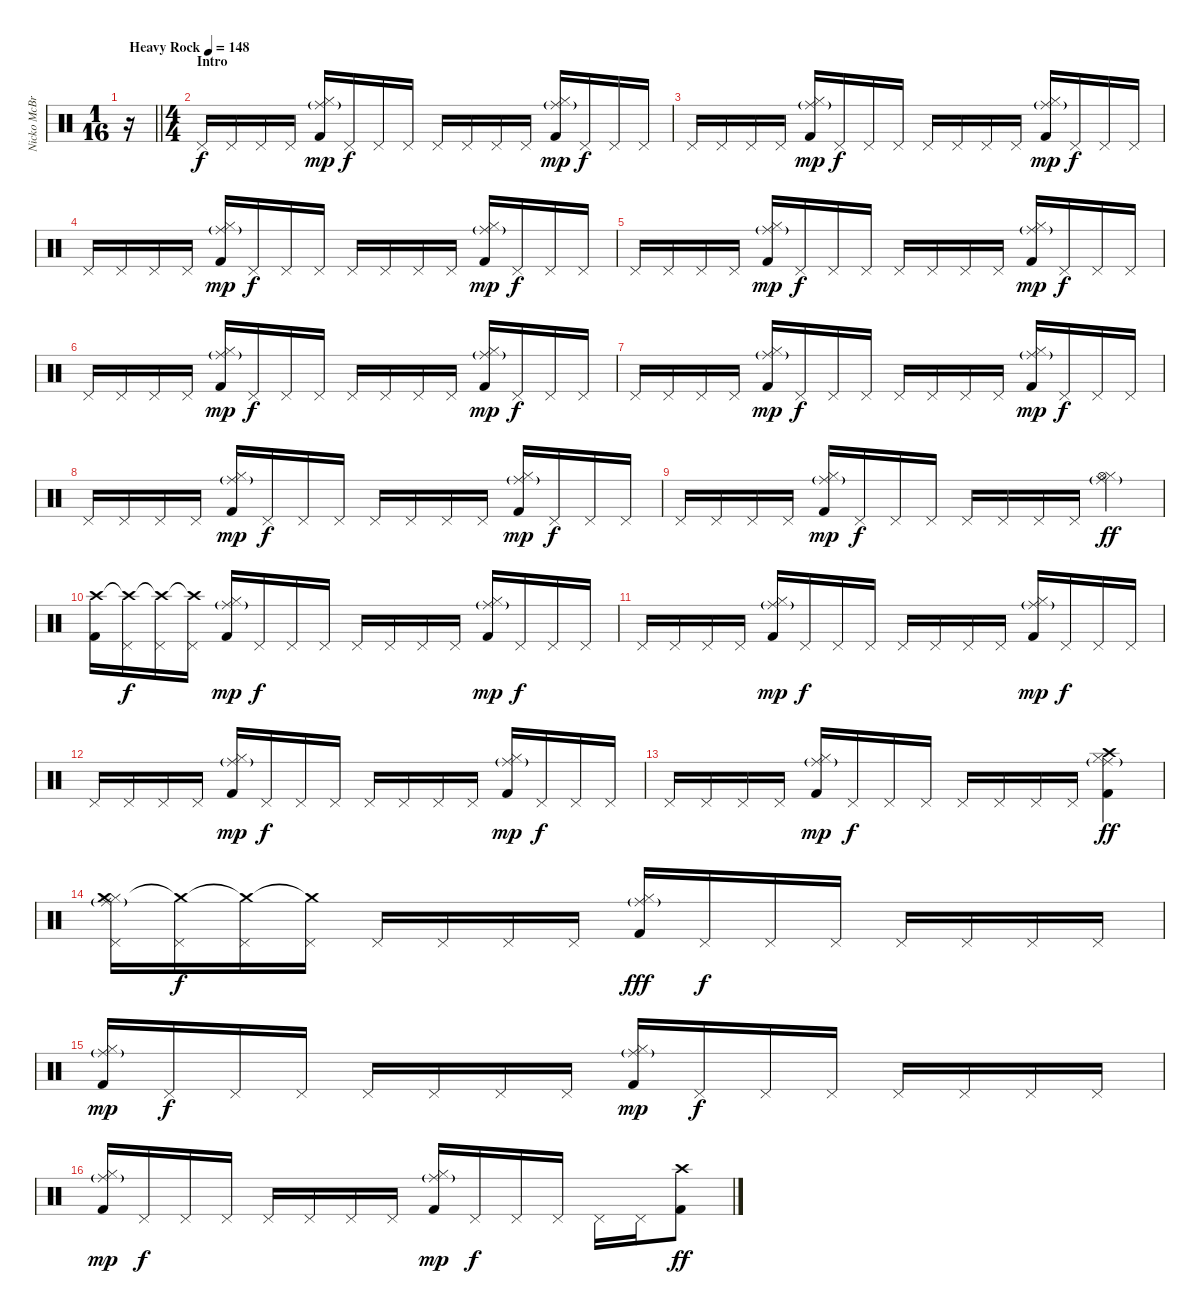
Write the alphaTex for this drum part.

\track ("Nicko McBrain" "Nicko McBr") {instrument percussion}
\staff {score}
\articulation defaults
\ts (1 16)
\tempo (148 "Heavy Rock")
\clef neutral
\barLineRight lightlight
\ks c
r.16{dy f} |
\ts (4 4)
\section ("" "Intro")
"Pedal Hi-Hat (hit)".16 "Pedal Hi-Hat (hit)".16 "Pedal Hi-Hat (hit)".16 "Pedal Hi-Hat (hit)".16 ("Kick (hit) 2" "Hi-Hat (closed)" "Ride (middle)"{g}).16{dy mp} "Pedal Hi-Hat (hit)".16{dy f} "Pedal Hi-Hat (hit)".16 "Pedal Hi-Hat (hit)".16 "Pedal Hi-Hat (hit)".16 "Pedal Hi-Hat (hit)".16 "Pedal Hi-Hat (hit)".16 "Pedal Hi-Hat (hit)".16 ("Kick (hit) 2" "Hi-Hat (closed)" "Ride (middle)"{g}).16{dy mp} "Pedal Hi-Hat (hit)".16{dy f} "Pedal Hi-Hat (hit)".16 "Pedal Hi-Hat (hit)".16 |
"Pedal Hi-Hat (hit)".16 "Pedal Hi-Hat (hit)".16 "Pedal Hi-Hat (hit)".16 "Pedal Hi-Hat (hit)".16 ("Kick (hit) 2" "Hi-Hat (closed)" "Ride (middle)"{g}).16{dy mp} "Pedal Hi-Hat (hit)".16{dy f} "Pedal Hi-Hat (hit)".16 "Pedal Hi-Hat (hit)".16 "Pedal Hi-Hat (hit)".16 "Pedal Hi-Hat (hit)".16 "Pedal Hi-Hat (hit)".16 "Pedal Hi-Hat (hit)".16 ("Kick (hit) 2" "Hi-Hat (closed)" "Ride (middle)"{g}).16{dy mp} "Pedal Hi-Hat (hit)".16{dy f} "Pedal Hi-Hat (hit)".16 "Pedal Hi-Hat (hit)".16 |
"Pedal Hi-Hat (hit)".16 "Pedal Hi-Hat (hit)".16 "Pedal Hi-Hat (hit)".16 "Pedal Hi-Hat (hit)".16 ("Kick (hit) 2" "Hi-Hat (closed)" "Ride (middle)"{g}).16{dy mp} "Pedal Hi-Hat (hit)".16{dy f} "Pedal Hi-Hat (hit)".16 "Pedal Hi-Hat (hit)".16 "Pedal Hi-Hat (hit)".16 "Pedal Hi-Hat (hit)".16 "Pedal Hi-Hat (hit)".16 "Pedal Hi-Hat (hit)".16 ("Kick (hit) 2" "Hi-Hat (closed)" "Ride (middle)"{g}).16{dy mp} "Pedal Hi-Hat (hit)".16{dy f} "Pedal Hi-Hat (hit)".16 "Pedal Hi-Hat (hit)".16 |
"Pedal Hi-Hat (hit)".16 "Pedal Hi-Hat (hit)".16 "Pedal Hi-Hat (hit)".16 "Pedal Hi-Hat (hit)".16 ("Kick (hit) 2" "Hi-Hat (closed)" "Ride (middle)"{g}).16{dy mp} "Pedal Hi-Hat (hit)".16{dy f} "Pedal Hi-Hat (hit)".16 "Pedal Hi-Hat (hit)".16 "Pedal Hi-Hat (hit)".16 "Pedal Hi-Hat (hit)".16 "Pedal Hi-Hat (hit)".16 "Pedal Hi-Hat (hit)".16 ("Kick (hit) 2" "Hi-Hat (closed)" "Ride (middle)"{g}).16{dy mp} "Pedal Hi-Hat (hit)".16{dy f} "Pedal Hi-Hat (hit)".16 "Pedal Hi-Hat (hit)".16 |
"Pedal Hi-Hat (hit)".16 "Pedal Hi-Hat (hit)".16 "Pedal Hi-Hat (hit)".16 "Pedal Hi-Hat (hit)".16 ("Kick (hit) 2" "Hi-Hat (closed)" "Ride (middle)"{g}).16{dy mp} "Pedal Hi-Hat (hit)".16{dy f} "Pedal Hi-Hat (hit)".16 "Pedal Hi-Hat (hit)".16 "Pedal Hi-Hat (hit)".16 "Pedal Hi-Hat (hit)".16 "Pedal Hi-Hat (hit)".16 "Pedal Hi-Hat (hit)".16 ("Kick (hit) 2" "Hi-Hat (closed)" "Ride (middle)"{g}).16{dy mp} "Pedal Hi-Hat (hit)".16{dy f} "Pedal Hi-Hat (hit)".16 "Pedal Hi-Hat (hit)".16 |
"Pedal Hi-Hat (hit)".16 "Pedal Hi-Hat (hit)".16 "Pedal Hi-Hat (hit)".16 "Pedal Hi-Hat (hit)".16 ("Kick (hit) 2" "Hi-Hat (closed)" "Ride (middle)"{g}).16{dy mp} "Pedal Hi-Hat (hit)".16{dy f} "Pedal Hi-Hat (hit)".16 "Pedal Hi-Hat (hit)".16 "Pedal Hi-Hat (hit)".16 "Pedal Hi-Hat (hit)".16 "Pedal Hi-Hat (hit)".16 "Pedal Hi-Hat (hit)".16 ("Kick (hit) 2" "Hi-Hat (closed)" "Ride (middle)"{g}).16{dy mp} "Pedal Hi-Hat (hit)".16{dy f} "Pedal Hi-Hat (hit)".16 "Pedal Hi-Hat (hit)".16 |
"Pedal Hi-Hat (hit)".16 "Pedal Hi-Hat (hit)".16 "Pedal Hi-Hat (hit)".16 "Pedal Hi-Hat (hit)".16 ("Kick (hit) 2" "Hi-Hat (closed)" "Ride (middle)"{g}).16{dy mp} "Pedal Hi-Hat (hit)".16{dy f} "Pedal Hi-Hat (hit)".16 "Pedal Hi-Hat (hit)".16 "Pedal Hi-Hat (hit)".16 "Pedal Hi-Hat (hit)".16 "Pedal Hi-Hat (hit)".16 "Pedal Hi-Hat (hit)".16 ("Kick (hit) 2" "Hi-Hat (closed)" "Ride (middle)"{g}).16{dy mp} "Pedal Hi-Hat (hit)".16{dy f} "Pedal Hi-Hat (hit)".16 "Pedal Hi-Hat (hit)".16 |
"Pedal Hi-Hat (hit)".16 "Pedal Hi-Hat (hit)".16 "Pedal Hi-Hat (hit)".16 "Pedal Hi-Hat (hit)".16 ("Kick (hit) 2" "Hi-Hat (closed)" "Ride (middle)"{g}).16{dy mp} "Pedal Hi-Hat (hit)".16{dy f} "Pedal Hi-Hat (hit)".16 "Pedal Hi-Hat (hit)".16 "Pedal Hi-Hat (hit)".16 "Pedal Hi-Hat (hit)".16 "Pedal Hi-Hat (hit)".16 "Pedal Hi-Hat (hit)".16 ("Hi-Hat (closed)" "Ride (middle)"{g} "Hi-Hat (open)").4{dy ff} |
("Kick (hit) 2" "Crash high (hit)").16 ("Pedal Hi-Hat (hit)" "Crash high (hit)"{t}).16{dy f} ("Pedal Hi-Hat (hit)" "Crash high (hit)"{t}).16 ("Pedal Hi-Hat (hit)" "Crash high (hit)"{t}).16 ("Kick (hit) 2" "Hi-Hat (closed)" "Ride (middle)"{g}).16{dy mp} "Pedal Hi-Hat (hit)".16{dy f} "Pedal Hi-Hat (hit)".16 "Pedal Hi-Hat (hit)".16 "Pedal Hi-Hat (hit)".16 "Pedal Hi-Hat (hit)".16 "Pedal Hi-Hat (hit)".16 "Pedal Hi-Hat (hit)".16 ("Kick (hit) 2" "Hi-Hat (closed)" "Ride (middle)"{g}).16{dy mp} "Pedal Hi-Hat (hit)".16{dy f} "Pedal Hi-Hat (hit)".16 "Pedal Hi-Hat (hit)".16 |
"Pedal Hi-Hat (hit)".16 "Pedal Hi-Hat (hit)".16 "Pedal Hi-Hat (hit)".16 "Pedal Hi-Hat (hit)".16 ("Kick (hit) 2" "Hi-Hat (closed)" "Ride (middle)"{g}).16{dy mp} "Pedal Hi-Hat (hit)".16{dy f} "Pedal Hi-Hat (hit)".16 "Pedal Hi-Hat (hit)".16 "Pedal Hi-Hat (hit)".16 "Pedal Hi-Hat (hit)".16 "Pedal Hi-Hat (hit)".16 "Pedal Hi-Hat (hit)".16 ("Kick (hit) 2" "Hi-Hat (closed)" "Ride (middle)"{g}).16{dy mp} "Pedal Hi-Hat (hit)".16{dy f} "Pedal Hi-Hat (hit)".16 "Pedal Hi-Hat (hit)".16 |
"Pedal Hi-Hat (hit)".16 "Pedal Hi-Hat (hit)".16 "Pedal Hi-Hat (hit)".16 "Pedal Hi-Hat (hit)".16 ("Kick (hit) 2" "Hi-Hat (closed)" "Ride (middle)"{g}).16{dy mp} "Pedal Hi-Hat (hit)".16{dy f} "Pedal Hi-Hat (hit)".16 "Pedal Hi-Hat (hit)".16 "Pedal Hi-Hat (hit)".16 "Pedal Hi-Hat (hit)".16 "Pedal Hi-Hat (hit)".16 "Pedal Hi-Hat (hit)".16 ("Kick (hit) 2" "Hi-Hat (closed)" "Ride (middle)"{g}).16{dy mp} "Pedal Hi-Hat (hit)".16{dy f} "Pedal Hi-Hat (hit)".16 "Pedal Hi-Hat (hit)".16 |
"Pedal Hi-Hat (hit)".16 "Pedal Hi-Hat (hit)".16 "Pedal Hi-Hat (hit)".16 "Pedal Hi-Hat (hit)".16 ("Kick (hit) 2" "Hi-Hat (closed)" "Ride (middle)"{g}).16{dy mp} "Pedal Hi-Hat (hit)".16{dy f} "Pedal Hi-Hat (hit)".16 "Pedal Hi-Hat (hit)".16 "Pedal Hi-Hat (hit)".16 "Pedal Hi-Hat (hit)".16 "Pedal Hi-Hat (hit)".16 "Pedal Hi-Hat (hit)".16 ("Kick (hit) 2" "Hi-Hat (closed)" "Ride (middle)"{g} "Crash high (hit)").4{dy ff} |
("Pedal Hi-Hat (hit)" "Hi-Hat (closed)" "Ride (middle)"{g} "Crash medium (hit)").16 ("Pedal Hi-Hat (hit)" "Crash medium (hit)"{t}).16{dy f} ("Pedal Hi-Hat (hit)" "Crash medium (hit)"{t}).16 ("Pedal Hi-Hat (hit)" "Crash medium (hit)"{t}).16 "Pedal Hi-Hat (hit)".16 "Pedal Hi-Hat (hit)".16 "Pedal Hi-Hat (hit)".16 "Pedal Hi-Hat (hit)".16 ("Kick (hit) 2" "Hi-Hat (closed)" "Ride (middle)"{g}).16{dy fff} "Pedal Hi-Hat (hit)".16{dy f} "Pedal Hi-Hat (hit)".16 "Pedal Hi-Hat (hit)".16 "Pedal Hi-Hat (hit)".16 "Pedal Hi-Hat (hit)".16 "Pedal Hi-Hat (hit)".16 "Pedal Hi-Hat (hit)".16 |
("Kick (hit) 2" "Hi-Hat (closed)" "Ride (middle)"{g}).16{dy mp} "Pedal Hi-Hat (hit)".16{dy f} "Pedal Hi-Hat (hit)".16 "Pedal Hi-Hat (hit)".16 "Pedal Hi-Hat (hit)".16 "Pedal Hi-Hat (hit)".16 "Pedal Hi-Hat (hit)".16 "Pedal Hi-Hat (hit)".16 ("Kick (hit) 2" "Hi-Hat (closed)" "Ride (middle)"{g}).16{dy mp} "Pedal Hi-Hat (hit)".16{dy f} "Pedal Hi-Hat (hit)".16 "Pedal Hi-Hat (hit)".16 "Pedal Hi-Hat (hit)".16 "Pedal Hi-Hat (hit)".16 "Pedal Hi-Hat (hit)".16 "Pedal Hi-Hat (hit)".16 |
("Kick (hit) 2" "Hi-Hat (closed)" "Ride (middle)"{g}).16{dy mp} "Pedal Hi-Hat (hit)".16{dy f} "Pedal Hi-Hat (hit)".16 "Pedal Hi-Hat (hit)".16 "Pedal Hi-Hat (hit)".16 "Pedal Hi-Hat (hit)".16 "Pedal Hi-Hat (hit)".16 "Pedal Hi-Hat (hit)".16 ("Kick (hit) 2" "Hi-Hat (closed)" "Ride (middle)"{g}).16{dy mp} "Pedal Hi-Hat (hit)".16{dy f} "Pedal Hi-Hat (hit)".16 "Pedal Hi-Hat (hit)".16 "Pedal Hi-Hat (hit)".16 "Pedal Hi-Hat (hit)".16 ("Kick (hit) 2" "Crash high (hit)").8{dy ff}
